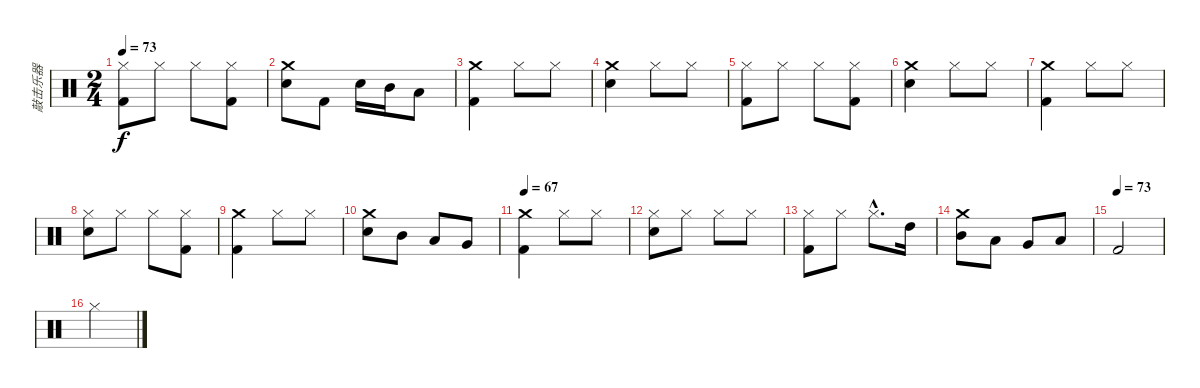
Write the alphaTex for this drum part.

\track ("敲击乐器" "敲击乐器") {instrument percussion}
\staff {score}
\articulation defaults
\ts (2 4)
\tempo 73
\clef neutral
\ks c
("Hi-Hat (closed)" "Kick (hit) 2").8{dy f} "Hi-Hat (closed)".8 "Hi-Hat (closed)".8 ("Hi-Hat (closed)" "Kick (hit) 2").8 |
("Crash medium (hit)" "Electric Snare (hit)").8 "Kick (hit) 2".8 "Electric Snare (hit)".16 "Mid Tom (hit)".16 "Low Tom (hit)".8 |
("Crash medium (hit)" "Kick (hit) 2").4 "Hi-Hat (closed)".8 "Hi-Hat (closed)".8 |
("Crash medium (hit)" "Electric Snare (hit)").4 "Hi-Hat (closed)".8 "Hi-Hat (closed)".8 |
("Hi-Hat (closed)" "Kick (hit) 2").8 "Hi-Hat (closed)".8 "Hi-Hat (closed)".8 ("Hi-Hat (closed)" "Kick (hit) 2").8 |
("Crash medium (hit)" "Electric Snare (hit)").4 "Hi-Hat (closed)".8 "Hi-Hat (closed)".8 |
("Crash medium (hit)" "Kick (hit) 2").4 "Hi-Hat (closed)".8 "Hi-Hat (closed)".8 |
("Hi-Hat (closed)" "Electric Snare (hit)").8 "Hi-Hat (closed)".8 "Hi-Hat (closed)".8 ("Hi-Hat (closed)" "Kick (hit) 2").8 |
("Crash medium (hit)" "Kick (hit) 2").4 "Hi-Hat (closed)".8 "Hi-Hat (closed)".8 |
("Crash medium (hit)" "Electric Snare (hit)").8 "Mid Tom (hit)".8 "Low Tom (hit)".8 "Very Low Tom (hit)".8 |
\tempo 67
("Crash medium (hit)" "Kick (hit) 2").4 "Hi-Hat (closed)".8 "Hi-Hat (closed)".8 |
("Hi-Hat (closed)" "Electric Snare (hit)").8 "Hi-Hat (closed)".8 "Hi-Hat (closed)".8 "Hi-Hat (closed)".8 |
("Hi-Hat (closed)" "Kick (hit) 2").8 "Hi-Hat (closed)".8 "Hi-Hat (closed)"{hac}.8{d} "High Tom (hit)".16 |
("Crash medium (hit)" "Mid Tom (hit)").8 "Low Tom (hit)".8 "Very Low Tom (hit)".8 "Low Floor Tom (hit)".8 |
\tempo (73)
"Kick (hit) 2".2 |
"Hi-Hat (closed)".2
